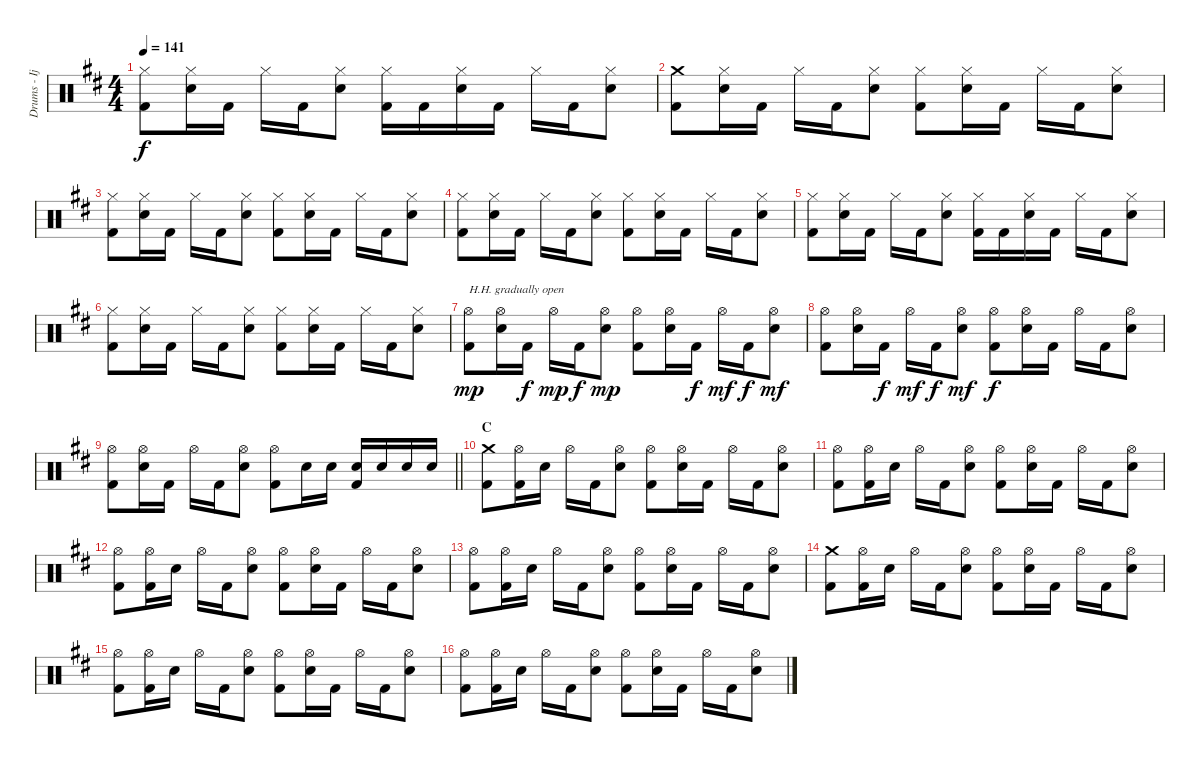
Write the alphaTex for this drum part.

\track ("Drums - Ijichi" "Drums - Ij") {instrument percussion}
\staff {score}
\articulation defaults
\ts (4 4)
\tempo 141
\clef neutral
\ks d
("Hi-Hat (closed)" "Kick (hit) 2").8{dy f} ("Hi-Hat (closed)" "Electric Snare (hit)").16 "Kick (hit) 2".16 "Hi-Hat (closed)".16 "Kick (hit) 2".16 ("Hi-Hat (closed)" "Electric Snare (hit)").8 ("Hi-Hat (closed)" "Kick (hit) 2").16 "Kick (hit) 2".16 ("Hi-Hat (closed)" "Electric Snare (hit)").16 "Kick (hit) 2".16 "Hi-Hat (closed)".16 "Kick (hit) 2".16 ("Hi-Hat (closed)" "Electric Snare (hit)").8 |
("Crash medium (hit)" "Kick (hit) 2").8 ("Hi-Hat (closed)" "Electric Snare (hit)").16 "Kick (hit) 2".16 "Hi-Hat (closed)".16 "Kick (hit) 2".16 ("Hi-Hat (closed)" "Electric Snare (hit)").8 ("Hi-Hat (closed)" "Kick (hit) 2").8 ("Hi-Hat (closed)" "Electric Snare (hit)").16 "Kick (hit) 2".16 "Hi-Hat (closed)".16 "Kick (hit) 2".16 ("Hi-Hat (closed)" "Electric Snare (hit)").8 |
("Hi-Hat (closed)" "Kick (hit) 2").8 ("Hi-Hat (closed)" "Electric Snare (hit)").16 "Kick (hit) 2".16 "Hi-Hat (closed)".16 "Kick (hit) 2".16 ("Hi-Hat (closed)" "Electric Snare (hit)").8 ("Hi-Hat (closed)" "Kick (hit) 2").8 ("Hi-Hat (closed)" "Electric Snare (hit)").16 "Kick (hit) 2".16 "Hi-Hat (closed)".16 "Kick (hit) 2".16 ("Hi-Hat (closed)" "Electric Snare (hit)").8 |
("Hi-Hat (closed)" "Kick (hit) 2").8 ("Hi-Hat (closed)" "Electric Snare (hit)").16 "Kick (hit) 2".16 "Hi-Hat (closed)".16 "Kick (hit) 2".16 ("Hi-Hat (closed)" "Electric Snare (hit)").8 ("Hi-Hat (closed)" "Kick (hit) 2").8 ("Hi-Hat (closed)" "Electric Snare (hit)").16 "Kick (hit) 2".16 "Hi-Hat (closed)".16 "Kick (hit) 2".16 ("Hi-Hat (closed)" "Electric Snare (hit)").8 |
("Hi-Hat (closed)" "Kick (hit) 2").8 ("Hi-Hat (closed)" "Electric Snare (hit)").16 "Kick (hit) 2".16 "Hi-Hat (closed)".16 "Kick (hit) 2".16 ("Hi-Hat (closed)" "Electric Snare (hit)").8 ("Hi-Hat (closed)" "Kick (hit) 2").16 "Kick (hit) 2".16 ("Hi-Hat (closed)" "Electric Snare (hit)").16 "Kick (hit) 2".16 "Hi-Hat (closed)".16 "Kick (hit) 2".16 ("Hi-Hat (closed)" "Electric Snare (hit)").8 |
("Hi-Hat (closed)" "Kick (hit) 2").8 ("Hi-Hat (closed)" "Electric Snare (hit)").16 "Kick (hit) 2".16 "Hi-Hat (closed)".16 "Kick (hit) 2".16 ("Hi-Hat (closed)" "Electric Snare (hit)").8 ("Hi-Hat (closed)" "Kick (hit) 2").8 ("Hi-Hat (closed)" "Electric Snare (hit)").16 "Kick (hit) 2".16 "Hi-Hat (closed)".16 "Kick (hit) 2".16 ("Hi-Hat (closed)" "Electric Snare (hit)").8 |
("Hi-Hat (open)" "Kick (hit) 2").8{txt "H.H. gradually open" dy mp} ("Hi-Hat (open)" "Electric Snare (hit)").16 "Kick (hit) 2".16{dy f} "Hi-Hat (open)".16{dy mp} "Kick (hit) 2".16{dy f} ("Hi-Hat (open)" "Electric Snare (hit)").8{dy mp} ("Hi-Hat (open)" "Kick (hit) 2").8 ("Hi-Hat (open)" "Electric Snare (hit)").16 "Kick (hit) 2".16{dy f} "Hi-Hat (open)".16{dy mf} "Kick (hit) 2".16{dy f} ("Hi-Hat (open)" "Electric Snare (hit)").8{dy mf} |
("Hi-Hat (open)" "Kick (hit) 2").8 ("Hi-Hat (open)" "Electric Snare (hit)").16 "Kick (hit) 2".16{dy f} "Hi-Hat (open)".16{dy mf} "Kick (hit) 2".16{dy f} ("Hi-Hat (open)" "Electric Snare (hit)").8{dy mf} ("Hi-Hat (open)" "Kick (hit) 2").8{dy f} ("Hi-Hat (open)" "Electric Snare (hit)").16 "Kick (hit) 2".16 "Hi-Hat (open)".16 "Kick (hit) 2".16 ("Hi-Hat (open)" "Electric Snare (hit)").8 |
\barLineRight lightlight
("Hi-Hat (open)" "Kick (hit) 2").8 ("Hi-Hat (open)" "Electric Snare (hit)").16 "Kick (hit) 2".16 "Hi-Hat (open)".16 "Kick (hit) 2".16 ("Hi-Hat (open)" "Electric Snare (hit)").8 ("Hi-Hat (open)" "Kick (hit) 2").8 "Electric Snare (hit)".16 "Electric Snare (hit)".16 ("Electric Snare (hit)" "Kick (hit) 2").16 "Electric Snare (hit)".16 "Electric Snare (hit)".16 "Electric Snare (hit)".16 |
\section ("" "C")
("Crash medium (hit)" "Kick (hit) 2").8 ("Hi-Hat (open)" "Kick (hit) 2").16 "Electric Snare (hit)".16 "Hi-Hat (open)".16 "Kick (hit) 2".16 ("Hi-Hat (open)" "Electric Snare (hit)").8 ("Hi-Hat (open)" "Kick (hit) 2").8 ("Hi-Hat (open)" "Electric Snare (hit)").16 "Kick (hit) 2".16 "Hi-Hat (open)".16 "Kick (hit) 2".16 ("Hi-Hat (open)" "Electric Snare (hit)").8 |
("Hi-Hat (open)" "Kick (hit) 2").8 ("Hi-Hat (open)" "Kick (hit) 2").16 "Electric Snare (hit)".16 "Hi-Hat (open)".16 "Kick (hit) 2".16 ("Hi-Hat (open)" "Electric Snare (hit)").8 ("Hi-Hat (open)" "Kick (hit) 2").8 ("Hi-Hat (open)" "Electric Snare (hit)").16 "Kick (hit) 2".16 "Hi-Hat (open)".16 "Kick (hit) 2".16 ("Hi-Hat (open)" "Electric Snare (hit)").8 |
("Hi-Hat (open)" "Kick (hit) 2").8 ("Hi-Hat (open)" "Kick (hit) 2").16 "Electric Snare (hit)".16 "Hi-Hat (open)".16 "Kick (hit) 2".16 ("Hi-Hat (open)" "Electric Snare (hit)").8 ("Hi-Hat (open)" "Kick (hit) 2").8 ("Hi-Hat (open)" "Electric Snare (hit)").16 "Kick (hit) 2".16 "Hi-Hat (open)".16 "Kick (hit) 2".16 ("Hi-Hat (open)" "Electric Snare (hit)").8 |
("Hi-Hat (open)" "Kick (hit) 2").8 ("Hi-Hat (open)" "Kick (hit) 2").16 "Electric Snare (hit)".16 "Hi-Hat (open)".16 "Kick (hit) 2".16 ("Hi-Hat (open)" "Electric Snare (hit)").8 ("Hi-Hat (open)" "Kick (hit) 2").8 ("Hi-Hat (open)" "Electric Snare (hit)").16 "Kick (hit) 2".16 "Hi-Hat (open)".16 "Kick (hit) 2".16 ("Hi-Hat (open)" "Electric Snare (hit)").8 |
("Crash medium (hit)" "Kick (hit) 2").8 ("Hi-Hat (open)" "Kick (hit) 2").16 "Electric Snare (hit)".16 "Hi-Hat (open)".16 "Kick (hit) 2".16 ("Hi-Hat (open)" "Electric Snare (hit)").8 ("Hi-Hat (open)" "Kick (hit) 2").8 ("Hi-Hat (open)" "Electric Snare (hit)").16 "Kick (hit) 2".16 "Hi-Hat (open)".16 "Kick (hit) 2".16 ("Hi-Hat (open)" "Electric Snare (hit)").8 |
("Hi-Hat (open)" "Kick (hit) 2").8 ("Hi-Hat (open)" "Kick (hit) 2").16 "Electric Snare (hit)".16 "Hi-Hat (open)".16 "Kick (hit) 2".16 ("Hi-Hat (open)" "Electric Snare (hit)").8 ("Hi-Hat (open)" "Kick (hit) 2").8 ("Hi-Hat (open)" "Electric Snare (hit)").16 "Kick (hit) 2".16 "Hi-Hat (open)".16 "Kick (hit) 2".16 ("Hi-Hat (open)" "Electric Snare (hit)").8 |
("Hi-Hat (open)" "Kick (hit) 2").8 ("Hi-Hat (open)" "Kick (hit) 2").16 "Electric Snare (hit)".16 "Hi-Hat (open)".16 "Kick (hit) 2".16 ("Hi-Hat (open)" "Electric Snare (hit)").8 ("Hi-Hat (open)" "Kick (hit) 2").8 ("Hi-Hat (open)" "Electric Snare (hit)").16 "Kick (hit) 2".16 "Hi-Hat (open)".16 "Kick (hit) 2".16 ("Hi-Hat (open)" "Electric Snare (hit)").8
